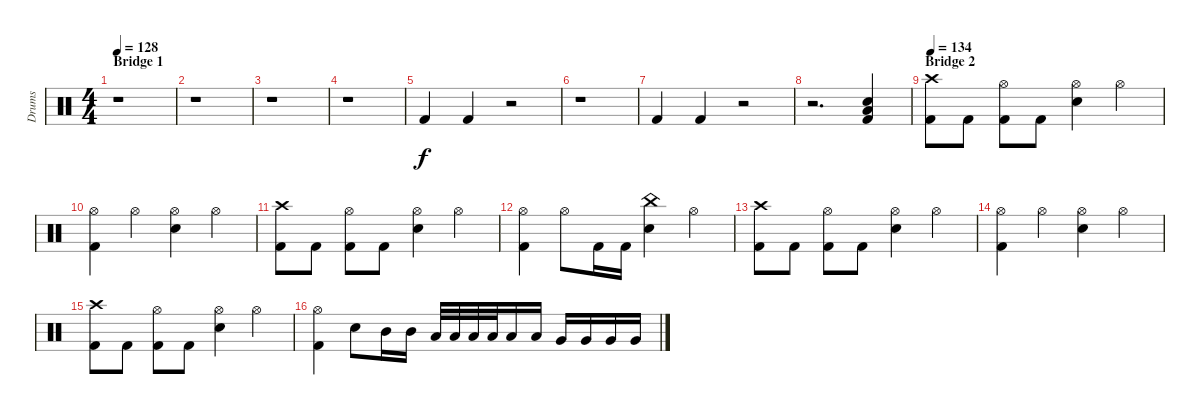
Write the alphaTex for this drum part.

\track ("Drums" "Drums") {instrument percussion}
\staff {score}
\articulation defaults
\ts (4 4)
\section ("" "Bridge 1")
\tempo 128
\clef neutral
\ks c
r.1{dy f} |
r.1 |
r.1 |
r.1 |
"Kick (hit) 2".4 "Kick (hit) 2".4 r.2 |
r.1 |
"Kick (hit) 2".4 "Kick (hit) 2".4 r.2 |
r.2{d} ("Electric Snare (hit)" "Low Floor Tom (hit)" "Kick (hit) 2").4 |
\section ("" "Bridge 2")
\tempo 134
("Crash high (hit)" "Kick (hit) 2").8 "Kick (hit) 2".8 ("Hi-Hat (open)" "Kick (hit) 2").8 "Kick (hit) 2".8 ("Hi-Hat (open)" "Electric Snare (hit)").4 "Hi-Hat (open)".4 |
("Hi-Hat (open)" "Kick (hit) 2").4 "Hi-Hat (open)".4 ("Hi-Hat (open)" "Electric Snare (hit)").4 "Hi-Hat (open)".4 |
("Crash high (hit)" "Kick (hit) 2").8 "Kick (hit) 2".8 ("Hi-Hat (open)" "Kick (hit) 2").8 "Kick (hit) 2".8 ("Hi-Hat (open)" "Electric Snare (hit)").4 "Hi-Hat (open)".4 |
("Hi-Hat (open)" "Kick (hit) 2").4 "Hi-Hat (open)".8 "Kick (hit) 2".16 "Kick (hit) 2".16 ("China (hit)" "Electric Snare (hit)").4 "Hi-Hat (open)".4 |
("Crash high (hit)" "Kick (hit) 2").8 "Kick (hit) 2".8 ("Hi-Hat (open)" "Kick (hit) 2").8 "Kick (hit) 2".8 ("Hi-Hat (open)" "Electric Snare (hit)").4 "Hi-Hat (open)".4 |
("Hi-Hat (open)" "Kick (hit) 2").4 "Hi-Hat (open)".4 ("Hi-Hat (open)" "Electric Snare (hit)").4 "Hi-Hat (open)".4 |
("Crash high (hit)" "Kick (hit) 2").8 "Kick (hit) 2".8 ("Hi-Hat (open)" "Kick (hit) 2").8 "Kick (hit) 2".8 ("Hi-Hat (open)" "Electric Snare (hit)").4 "Hi-Hat (open)".4 |
("Hi-Hat (open)" "Kick (hit) 2").4 "Electric Snare (hit)".8 "Mid Tom (hit)".16 "Mid Tom (hit)".16 "Low Tom (hit)".32 "Low Tom (hit)".32 "Low Tom (hit)".32 "Low Tom (hit)".32 "Low Tom (hit)".16 "Low Tom (hit)".16 "Very Low Tom (hit)".16 "Very Low Tom (hit)".16 "Very Low Tom (hit)".16 "Very Low Tom (hit)".16
